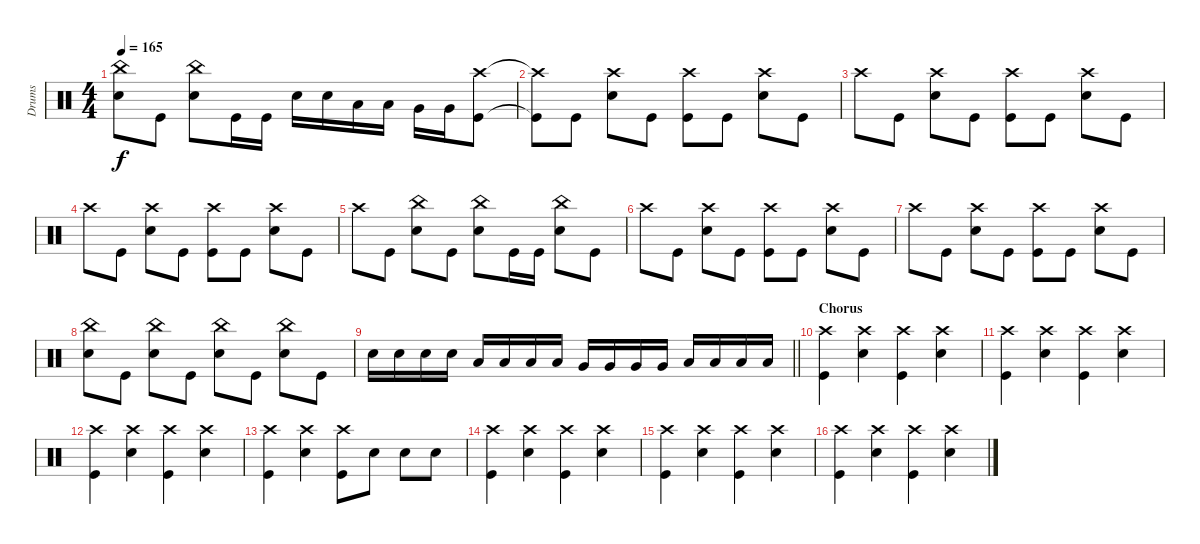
\track ("Drums" "Drums") {instrument percussion}
\staff {score}
\articulation defaults
\ts (4 4)
\tempo 165
\clef neutral
\ks c
("Snare (hit) 2" "China (hit)").8{dy f} "Kick (hit)".8 ("Snare (hit) 2" "China (hit)").8 "Kick (hit)".16 "Kick (hit)".16 "Snare (hit) 2".16 "Snare (hit) 2".16 "Low Tom (hit)".16 "Low Tom (hit)".16 "Very Low Tom (hit)".16 "Very Low Tom (hit)".16 ("Kick (hit)" "Crash high (hit)").8 |
("Kick (hit)"{t} "Crash high (hit)"{t}).8 "Kick (hit)".8 ("Snare (hit) 2" "Crash high (hit)").8 "Kick (hit)".8 ("Kick (hit)" "Crash high (hit)").8 "Kick (hit)".8 ("Crash high (hit)" "Snare (hit) 2").8 "Kick (hit)".8 |
"Crash high (hit)".8 "Kick (hit)".8 ("Snare (hit) 2" "Crash high (hit)").8 "Kick (hit)".8 ("Kick (hit)" "Crash high (hit)").8 "Kick (hit)".8 ("Snare (hit) 2" "Crash high (hit)").8 "Kick (hit)".8 |
"Crash high (hit)".8 "Kick (hit)".8 ("Snare (hit) 2" "Crash high (hit)").8 "Kick (hit)".8 ("Kick (hit)" "Crash high (hit)").8 "Kick (hit)".8 ("Snare (hit) 2" "Crash high (hit)").8 "Kick (hit)".8 |
"Crash high (hit)".8 "Kick (hit)".8 ("Snare (hit) 2" "China (hit)").8 "Kick (hit)".8 ("Snare (hit) 2" "China (hit)").8 "Kick (hit)".16 "Kick (hit)".16 ("Snare (hit) 2" "China (hit)").8 "Kick (hit)".8 |
"Crash high (hit)".8 "Kick (hit)".8 ("Snare (hit) 2" "Crash high (hit)").8 "Kick (hit)".8 ("Kick (hit)" "Crash high (hit)").8 "Kick (hit)".8 ("Snare (hit) 2" "Crash high (hit)").8 "Kick (hit)".8 |
"Crash high (hit)".8 "Kick (hit)".8 ("Snare (hit) 2" "Crash high (hit)").8 "Kick (hit)".8 ("Kick (hit)" "Crash high (hit)").8 "Kick (hit)".8 ("Snare (hit) 2" "Crash high (hit)").8 "Kick (hit)".8 |
("Snare (hit) 2" "China (hit)").8 "Kick (hit)".8 ("Snare (hit) 2" "China (hit)").8 "Kick (hit)".8 ("Snare (hit) 2" "China (hit)").8 "Kick (hit)".8 ("Snare (hit) 2" "China (hit)").8 "Kick (hit)".8 |
\barLineRight lightlight "Snare (hit) 2".16 "Snare (hit) 2".16 "Snare (hit) 2".16 "Snare (hit) 2".16 "Low Tom (hit)".16 "Low Tom (hit)".16 "Low Tom (hit)".16 "Low Tom (hit)".16 "Very Low Tom (hit)".16 "Very Low Tom (hit)".16 "Very Low Tom (hit)".16 "Very Low Tom (hit)".16 "Low Floor Tom (hit)".16 "Low Floor Tom (hit)".16 "Low Floor Tom (hit)".16 "Low Floor Tom (hit)".16
|
\section ("" "Chorus")
("Kick (hit)" "Crash high (hit)").4 ("Snare (hit) 2" "Crash high (hit)").4 ("Kick (hit)" "Crash high (hit)").4 ("Snare (hit) 2" "Crash high (hit)").4 |
("Kick (hit)" "Crash high (hit)").4 ("Snare (hit) 2" "Crash high (hit)").4 ("Kick (hit)" "Crash high (hit)").4 ("Snare (hit) 2" "Crash high (hit)").4 |
("Kick (hit)" "Crash high (hit)").4 ("Snare (hit) 2" "Crash high (hit)").4 ("Kick (hit)" "Crash high (hit)").4 ("Snare (hit) 2" "Crash high (hit)").4 |
("Kick (hit)" "Crash high (hit)").4 ("Snare (hit) 2" "Crash high (hit)").4 ("Kick (hit)" "Crash high (hit)").8 "Snare (hit) 2".8 "Snare (hit) 2".8 "Snare (hit) 2".8 |
("Kick (hit)" "Crash high (hit)").4 ("Snare (hit) 2" "Crash high (hit)").4 ("Kick (hit)" "Crash high (hit)").4 ("Snare (hit) 2" "Crash high (hit)").4 |
("Kick (hit)" "Crash high (hit)").4 ("Snare (hit) 2" "Crash high (hit)").4 ("Kick (hit)" "Crash high (hit)").4 ("Snare (hit) 2" "Crash high (hit)").4 |
("Kick (hit)" "Crash high (hit)").4 ("Snare (hit) 2" "Crash high (hit)").4 ("Kick (hit)" "Crash high (hit)").4 ("Snare (hit) 2" "Crash high (hit)").4
